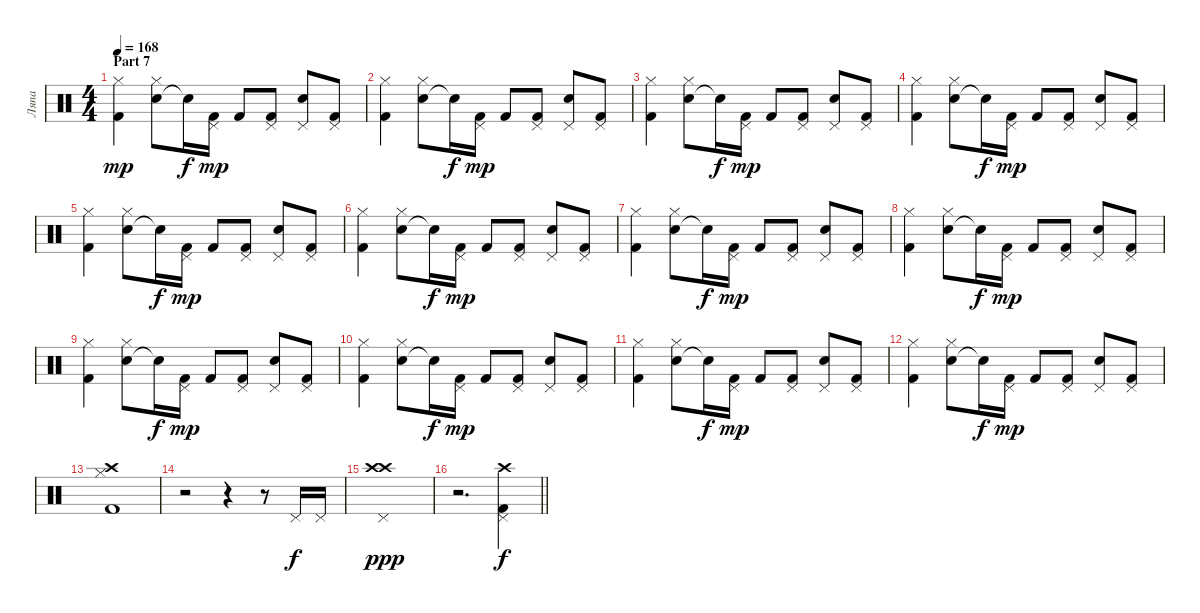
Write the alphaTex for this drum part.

\track ("Ляпа" "Ляпа") {instrument percussion}
\staff {score}
\articulation defaults
\ts (4 4)
\section ("" "Part 7")
\tempo 168
\clef neutral
\ks c
("Kick (hit) 2" "Hi-Hat (closed)").4{dy mp} ("Electric Snare (hit)" "Hi-Hat (closed)").8 "Snare (hit)"{t}.16{dy f} ("Kick (hit) 2" "Pedal Hi-Hat (hit)").16{dy mp} "Kick (hit) 2".8 ("Kick (hit) 2" "Pedal Hi-Hat (hit)").8 ("Electric Snare (hit)" "Pedal Hi-Hat (hit)").8 ("Kick (hit) 2" "Pedal Hi-Hat (hit)").8 |
("Kick (hit) 2" "Hi-Hat (closed)").4 ("Electric Snare (hit)" "Hi-Hat (closed)").8 "Snare (hit)"{t}.16{dy f} ("Kick (hit) 2" "Pedal Hi-Hat (hit)").16{dy mp} "Kick (hit) 2".8 ("Kick (hit) 2" "Pedal Hi-Hat (hit)").8 ("Electric Snare (hit)" "Pedal Hi-Hat (hit)").8 ("Kick (hit) 2" "Pedal Hi-Hat (hit)").8 |
("Kick (hit) 2" "Hi-Hat (closed)").4 ("Electric Snare (hit)" "Hi-Hat (closed)").8 "Snare (hit)"{t}.16{dy f} ("Kick (hit) 2" "Pedal Hi-Hat (hit)").16{dy mp} "Kick (hit) 2".8 ("Kick (hit) 2" "Pedal Hi-Hat (hit)").8 ("Electric Snare (hit)" "Pedal Hi-Hat (hit)").8 ("Kick (hit) 2" "Pedal Hi-Hat (hit)").8 |
("Kick (hit) 2" "Hi-Hat (closed)").4 ("Electric Snare (hit)" "Hi-Hat (closed)").8 "Snare (hit)"{t}.16{dy f} ("Kick (hit) 2" "Pedal Hi-Hat (hit)").16{dy mp} "Kick (hit) 2".8 ("Kick (hit) 2" "Pedal Hi-Hat (hit)").8 ("Electric Snare (hit)" "Pedal Hi-Hat (hit)").8 ("Kick (hit) 2" "Pedal Hi-Hat (hit)").8 |
("Kick (hit) 2" "Hi-Hat (closed)").4 ("Electric Snare (hit)" "Hi-Hat (closed)").8 "Snare (hit)"{t}.16{dy f} ("Kick (hit) 2" "Pedal Hi-Hat (hit)").16{dy mp} "Kick (hit) 2".8 ("Kick (hit) 2" "Pedal Hi-Hat (hit)").8 ("Electric Snare (hit)" "Pedal Hi-Hat (hit)").8 ("Kick (hit) 2" "Pedal Hi-Hat (hit)").8 |
("Kick (hit) 2" "Hi-Hat (closed)").4 ("Electric Snare (hit)" "Hi-Hat (closed)").8 "Snare (hit)"{t}.16{dy f} ("Kick (hit) 2" "Pedal Hi-Hat (hit)").16{dy mp} "Kick (hit) 2".8 ("Kick (hit) 2" "Pedal Hi-Hat (hit)").8 ("Electric Snare (hit)" "Pedal Hi-Hat (hit)").8 ("Kick (hit) 2" "Pedal Hi-Hat (hit)").8 |
("Kick (hit) 2" "Hi-Hat (closed)").4 ("Electric Snare (hit)" "Hi-Hat (closed)").8 "Snare (hit)"{t}.16{dy f} ("Kick (hit) 2" "Pedal Hi-Hat (hit)").16{dy mp} "Kick (hit) 2".8 ("Kick (hit) 2" "Pedal Hi-Hat (hit)").8 ("Electric Snare (hit)" "Pedal Hi-Hat (hit)").8 ("Kick (hit) 2" "Pedal Hi-Hat (hit)").8 |
("Kick (hit) 2" "Hi-Hat (closed)").4 ("Electric Snare (hit)" "Hi-Hat (closed)").8 "Snare (hit)"{t}.16{dy f} ("Kick (hit) 2" "Pedal Hi-Hat (hit)").16{dy mp} "Kick (hit) 2".8 ("Kick (hit) 2" "Pedal Hi-Hat (hit)").8 ("Electric Snare (hit)" "Pedal Hi-Hat (hit)").8 ("Kick (hit) 2" "Pedal Hi-Hat (hit)").8 |
("Kick (hit) 2" "Hi-Hat (closed)").4 ("Electric Snare (hit)" "Hi-Hat (closed)").8 "Snare (hit)"{t}.16{dy f} ("Kick (hit) 2" "Pedal Hi-Hat (hit)").16{dy mp} "Kick (hit) 2".8 ("Kick (hit) 2" "Pedal Hi-Hat (hit)").8 ("Electric Snare (hit)" "Pedal Hi-Hat (hit)").8 ("Kick (hit) 2" "Pedal Hi-Hat (hit)").8 |
("Kick (hit) 2" "Hi-Hat (closed)").4 ("Electric Snare (hit)" "Hi-Hat (closed)").8 "Snare (hit)"{t}.16{dy f} ("Kick (hit) 2" "Pedal Hi-Hat (hit)").16{dy mp} "Kick (hit) 2".8 ("Kick (hit) 2" "Pedal Hi-Hat (hit)").8 ("Electric Snare (hit)" "Pedal Hi-Hat (hit)").8 ("Kick (hit) 2" "Pedal Hi-Hat (hit)").8 |
("Kick (hit) 2" "Hi-Hat (closed)").4 ("Electric Snare (hit)" "Hi-Hat (closed)").8 "Snare (hit)"{t}.16{dy f} ("Kick (hit) 2" "Pedal Hi-Hat (hit)").16{dy mp} "Kick (hit) 2".8 ("Kick (hit) 2" "Pedal Hi-Hat (hit)").8 ("Electric Snare (hit)" "Pedal Hi-Hat (hit)").8 ("Kick (hit) 2" "Pedal Hi-Hat (hit)").8 |
("Kick (hit) 2" "Hi-Hat (closed)").4 ("Electric Snare (hit)" "Hi-Hat (closed)").8 "Snare (hit)"{t}.16{dy f} ("Kick (hit) 2" "Pedal Hi-Hat (hit)").16{dy mp} "Kick (hit) 2".8 ("Kick (hit) 2" "Pedal Hi-Hat (hit)").8 ("Electric Snare (hit)" "Pedal Hi-Hat (hit)").8 ("Kick (hit) 2" "Pedal Hi-Hat (hit)").8 |
("Kick (hit) 2" "Hi-Hat (closed)" "Crash high (hit)").1 |
r.2 r.4 r.8 "Pedal Hi-Hat (hit)".16{dy f} "Pedal Hi-Hat (hit)".16 |
("Crash high (hit)" "Pedal Hi-Hat (hit)" "Crash high (hit)").1{dy ppp} |
\barLineRight lightlight
r.2{d} ("Crash high (hit)" "Pedal Hi-Hat (hit)" "Kick (hit) 2").4{dy f}
